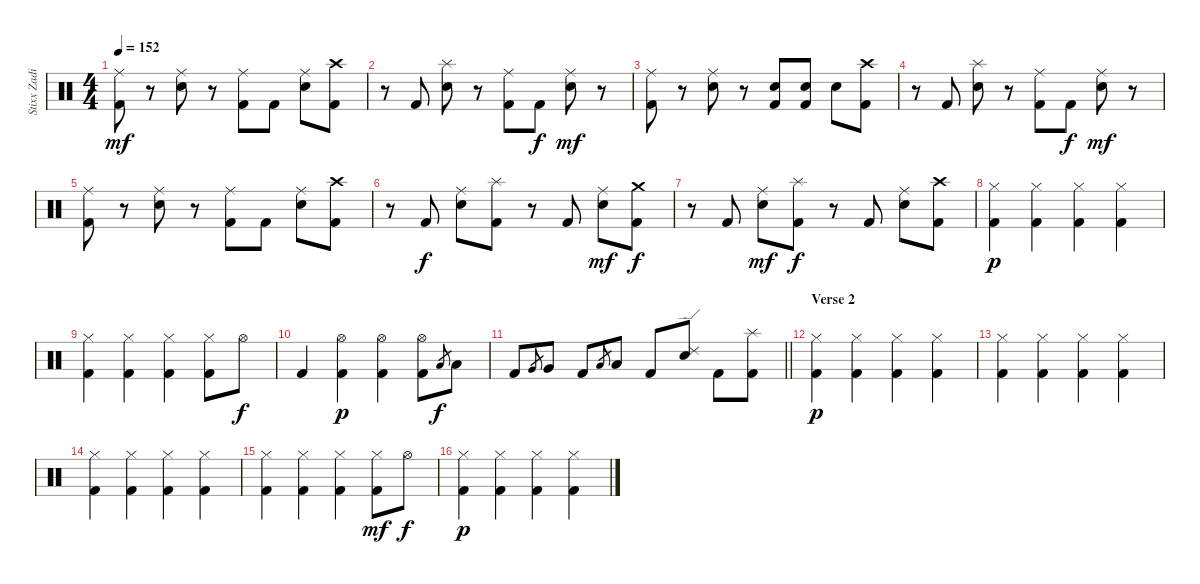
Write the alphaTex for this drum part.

\track ("Stixx Zadinia" "Stixx Zadi") {instrument percussion}
\staff {score}
\articulation defaults
\ts (4 4)
\tempo 152
\clef neutral
\ks c
("Ride (middle)" "Kick (hit) 2").8{dy mf} r.8 ("Ride (middle)" "Snare (hit) 2").8 r.8 ("Ride (middle)" "Kick (hit) 2").8 "Kick (hit) 2".8 ("Ride (middle)" "Snare (hit) 2").8 ("Crash high (hit)" "Kick (hit) 2").8 |
r.8 "Kick (hit) 2".8 ("Splash (hit)" "Snare (hit) 2").8 r.8 ("Ride (middle)" "Kick (hit) 2").8 "Kick (hit) 2".8{dy f} ("Ride (middle)" "Snare (hit) 2").8{dy mf} r.8 |
("Ride (middle)" "Kick (hit) 2").8 r.8 ("Ride (middle)" "Snare (hit) 2").8 r.8 ("Snare (hit) 2" "Kick (hit) 2").8 ("Snare (hit) 2" "Kick (hit) 2").8 "Snare (hit) 2".8 ("Crash high (hit)" "Kick (hit) 2").8 |
r.8 "Kick (hit) 2".8 ("Splash (hit)" "Snare (hit) 2").8 r.8 ("Ride (middle)" "Kick (hit) 2").8 "Kick (hit) 2".8{dy f} ("Ride (middle)" "Snare (hit) 2").8{dy mf} r.8 |
("Ride (middle)" "Kick (hit) 2").8 r.8 ("Ride (middle)" "Snare (hit) 2").8 r.8 ("Ride (middle)" "Kick (hit) 2").8 "Kick (hit) 2".8 ("Ride (middle)" "Snare (hit) 2").8 ("Crash high (hit)" "Kick (hit) 2").8 |
r.8 "Kick (hit) 2".8{dy f} ("Ride (middle)" "Snare (hit) 2").8 ("Splash (hit)" "Kick (hit) 2").8 r.8 "Kick (hit) 2".8 ("Ride (middle)" "Snare (hit) 2").8{dy mf} ("Crash medium (hit)" "Kick (hit) 2").8{dy f} |
r.8 "Kick (hit) 2".8 ("Ride (middle)" "Snare (hit) 2").8{dy mf} ("Splash (hit)" "Kick (hit) 2").8{dy f} r.8 "Kick (hit) 2".8 ("Ride (middle)" "Snare (hit) 2").8 ("Crash high (hit)" "Kick (hit) 2").8 |
("Hi-Hat (closed)" "Kick (hit) 2").4{dy p} ("Hi-Hat (closed)" "Kick (hit) 2").4 ("Hi-Hat (closed)" "Kick (hit) 2").4 ("Hi-Hat (closed)" "Kick (hit) 2").4 |
("Hi-Hat (closed)" "Kick (hit) 2").4 ("Hi-Hat (closed)" "Kick (hit) 2").4 ("Hi-Hat (closed)" "Kick (hit) 2").4 ("Hi-Hat (closed)" "Kick (hit) 2").8 "Hi-Hat (open)".8{dy f} |
"Kick (hit) 2".4 ("Hi-Hat (open)" "Kick (hit) 2").4{dy p} ("Hi-Hat (open)" "Kick (hit) 2").4 ("Hi-Hat (open)" "Kick (hit) 2").8 "Low Tom (hit)".8{gr dy f} "Low Tom (hit)".8 |
\barLineRight lightlight "Kick (hit) 2".8 "Very Low Tom (hit)".8{gr} "Very Low Tom (hit)".8 "Kick (hit) 2".8 "Low Floor Tom (hit)".8{gr} "Low Floor Tom (hit)".8 "Kick (hit) 2".8
("Ride (edge) 2" "Snare (hit) 2").8 "Kick (hit) 2".8 ("Splash (hit)" "Kick (hit) 2").8 |
\section ("" "Verse 2")
("Hi-Hat (closed)" "Kick (hit) 2").4{dy p} ("Hi-Hat (closed)" "Kick (hit) 2").4 ("Hi-Hat (closed)" "Kick (hit) 2").4 ("Hi-Hat (closed)" "Kick (hit) 2").4 |
("Hi-Hat (closed)" "Kick (hit) 2").4 ("Hi-Hat (closed)" "Kick (hit) 2").4 ("Hi-Hat (closed)" "Kick (hit) 2").4 ("Hi-Hat (closed)" "Kick (hit) 2").4 |
("Hi-Hat (closed)" "Kick (hit) 2").4 ("Hi-Hat (closed)" "Kick (hit) 2").4 ("Hi-Hat (closed)" "Kick (hit) 2").4 ("Hi-Hat (closed)" "Kick (hit) 2").4 |
("Hi-Hat (closed)" "Kick (hit) 2").4 ("Hi-Hat (closed)" "Kick (hit) 2").4 ("Hi-Hat (closed)" "Kick (hit) 2").4 ("Hi-Hat (closed)" "Kick (hit) 2").8{dy mf} "Hi-Hat (open)".8{dy f} |
("Hi-Hat (closed)" "Kick (hit) 2").4{dy p} ("Hi-Hat (closed)" "Kick (hit) 2").4 ("Hi-Hat (closed)" "Kick (hit) 2").4 ("Hi-Hat (closed)" "Kick (hit) 2").4
